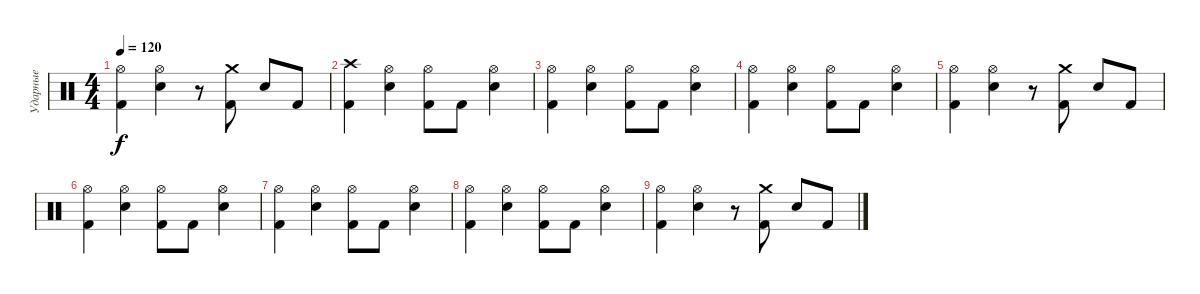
\track ("Ударные" "Ударные") {instrument percussion}
\staff {score}
\articulation defaults
\ts (4 4)
\tempo 120
\clef neutral
\ks c
("Hi-Hat (open)" "Kick (hit) 2").4{dy f} ("Hi-Hat (open)" "Electric Snare (hit)").4 r.8 ("Crash medium (hit)" "Kick (hit) 2").8 "Electric Snare (hit)".8 "Kick (hit) 2".8 |
("Crash high (hit)" "Kick (hit) 2").4 ("Hi-Hat (open)" "Electric Snare (hit)").4 ("Hi-Hat (open)" "Kick (hit) 2").8 "Kick (hit) 2".8 ("Hi-Hat (open)" "Electric Snare (hit)").4 |
("Hi-Hat (open)" "Kick (hit) 2").4 ("Hi-Hat (open)" "Electric Snare (hit)").4 ("Hi-Hat (open)" "Kick (hit) 2").8 "Kick (hit) 2".8 ("Hi-Hat (open)" "Electric Snare (hit)").4 |
("Hi-Hat (open)" "Kick (hit) 2").4 ("Hi-Hat (open)" "Electric Snare (hit)").4 ("Hi-Hat (open)" "Kick (hit) 2").8 "Kick (hit) 2".8 ("Hi-Hat (open)" "Electric Snare (hit)").4 |
("Hi-Hat (open)" "Kick (hit) 2").4 ("Hi-Hat (open)" "Electric Snare (hit)").4 r.8 ("Crash medium (hit)" "Kick (hit) 2").8 "Electric Snare (hit)".8 "Kick (hit) 2".8 |
("Hi-Hat (open)" "Kick (hit) 2").4 ("Hi-Hat (open)" "Electric Snare (hit)").4 ("Hi-Hat (open)" "Kick (hit) 2").8 "Kick (hit) 2".8 ("Hi-Hat (open)" "Electric Snare (hit)").4 |
("Hi-Hat (open)" "Kick (hit) 2").4 ("Hi-Hat (open)" "Electric Snare (hit)").4 ("Hi-Hat (open)" "Kick (hit) 2").8 "Kick (hit) 2".8 ("Hi-Hat (open)" "Electric Snare (hit)").4 |
("Hi-Hat (open)" "Kick (hit) 2").4 ("Hi-Hat (open)" "Electric Snare (hit)").4 ("Hi-Hat (open)" "Kick (hit) 2").8 "Kick (hit) 2".8 ("Hi-Hat (open)" "Electric Snare (hit)").4 |
("Hi-Hat (open)" "Kick (hit) 2").4 ("Hi-Hat (open)" "Electric Snare (hit)").4 r.8 ("Crash medium (hit)" "Kick (hit) 2").8 "Electric Snare (hit)".8 "Kick (hit) 2".8
